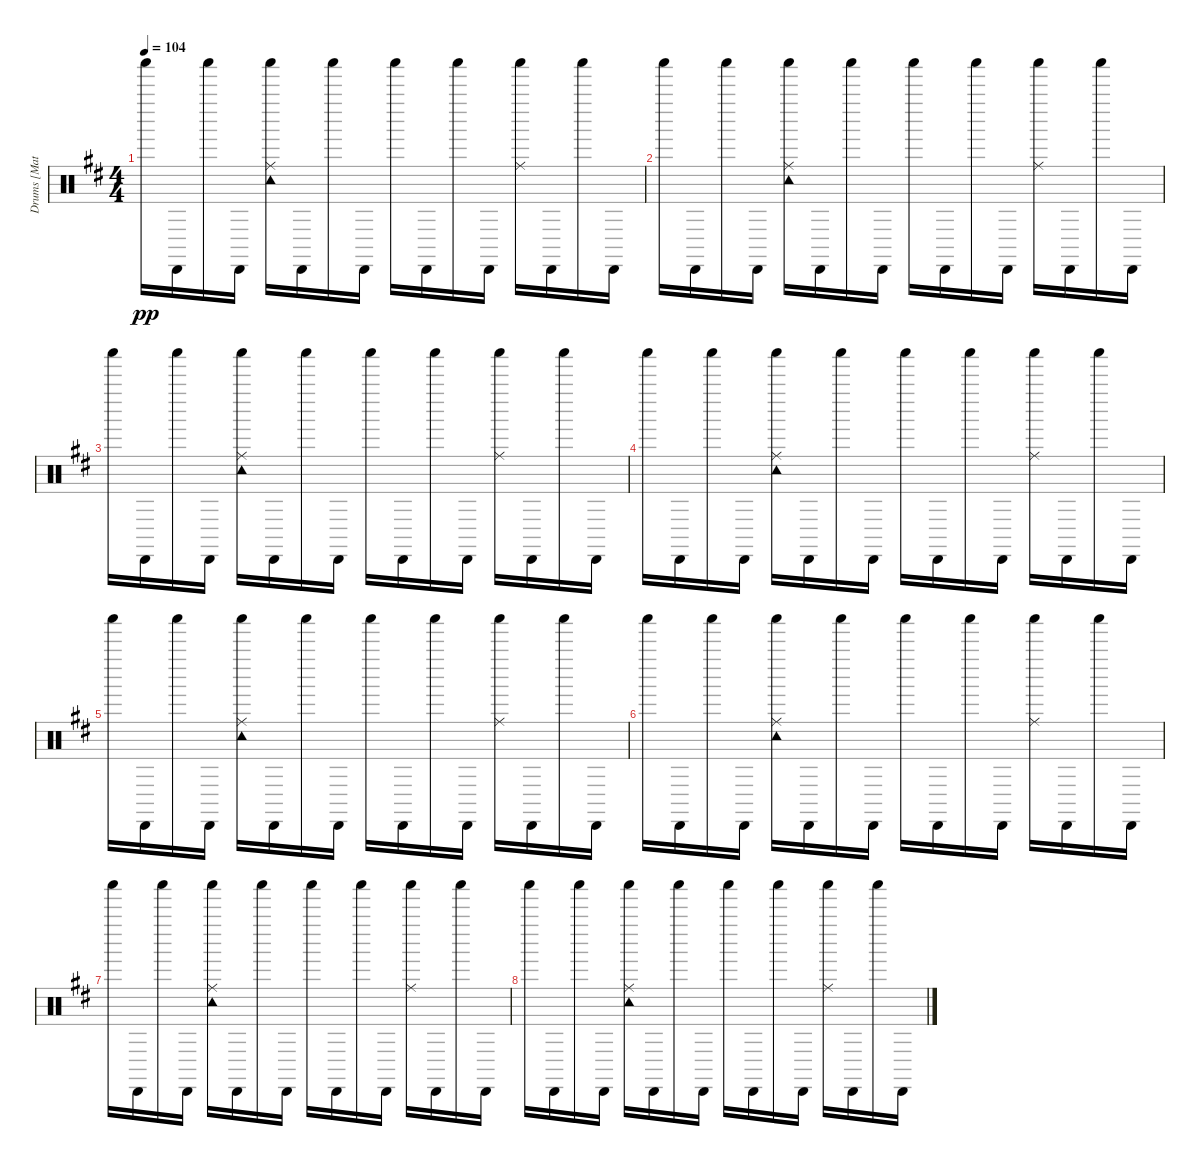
\track ("Drums [Matt]" "Drums [Mat") {instrument percussion}
\staff {score}
\articulation defaults
\ts (4 4)
\tempo 104
\clef neutral
\ks d "Shaker (hit)".16{dy pp} "Cabasa (hit)".16 "Shaker (hit)".16 "Cabasa (hit)".16
("Ride (middle)" "Tambourine (hit)" "Shaker (hit)").16 "Cabasa (hit)".16 "Shaker (hit)".16 "Cabasa (hit)".16 "Shaker (hit)".16 "Cabasa (hit)".16 "Shaker (hit)".16 "Cabasa (hit)".16 ("Ride (middle)" "Shaker (hit)").16 "Cabasa (hit)".16 "Shaker (hit)".16 "Cabasa (hit)".16 |
"Shaker (hit)".16 "Cabasa (hit)".16 "Shaker (hit)".16 "Cabasa (hit)".16 ("Ride (middle)" "Tambourine (hit)" "Shaker (hit)").16 "Cabasa (hit)".16 "Shaker (hit)".16 "Cabasa (hit)".16 "Shaker (hit)".16 "Cabasa (hit)".16 "Shaker (hit)".16 "Cabasa (hit)".16 ("Ride (middle)" "Shaker (hit)").16 "Cabasa (hit)".16 "Shaker (hit)".16 "Cabasa (hit)".16 |
"Shaker (hit)".16 "Cabasa (hit)".16 "Shaker (hit)".16 "Cabasa (hit)".16 ("Ride (middle)" "Tambourine (hit)" "Shaker (hit)").16 "Cabasa (hit)".16 "Shaker (hit)".16 "Cabasa (hit)".16 "Shaker (hit)".16 "Cabasa (hit)".16 "Shaker (hit)".16 "Cabasa (hit)".16 ("Ride (middle)" "Shaker (hit)").16 "Cabasa (hit)".16 "Shaker (hit)".16 "Cabasa (hit)".16 |
"Shaker (hit)".16 "Cabasa (hit)".16 "Shaker (hit)".16 "Cabasa (hit)".16 ("Ride (middle)" "Tambourine (hit)" "Shaker (hit)").16 "Cabasa (hit)".16 "Shaker (hit)".16 "Cabasa (hit)".16 "Shaker (hit)".16 "Cabasa (hit)".16 "Shaker (hit)".16 "Cabasa (hit)".16 ("Ride (middle)" "Shaker (hit)").16 "Cabasa (hit)".16 "Shaker (hit)".16 "Cabasa (hit)".16 |
"Shaker (hit)".16 "Cabasa (hit)".16 "Shaker (hit)".16 "Cabasa (hit)".16 ("Ride (middle)" "Tambourine (hit)" "Shaker (hit)").16 "Cabasa (hit)".16 "Shaker (hit)".16 "Cabasa (hit)".16 "Shaker (hit)".16 "Cabasa (hit)".16 "Shaker (hit)".16 "Cabasa (hit)".16 ("Ride (middle)" "Shaker (hit)").16 "Cabasa (hit)".16 "Shaker (hit)".16 "Cabasa (hit)".16 |
"Shaker (hit)".16 "Cabasa (hit)".16 "Shaker (hit)".16 "Cabasa (hit)".16 ("Ride (middle)" "Tambourine (hit)" "Shaker (hit)").16 "Cabasa (hit)".16 "Shaker (hit)".16 "Cabasa (hit)".16 "Shaker (hit)".16 "Cabasa (hit)".16 "Shaker (hit)".16 "Cabasa (hit)".16 ("Ride (middle)" "Shaker (hit)").16 "Cabasa (hit)".16 "Shaker (hit)".16 "Cabasa (hit)".16 |
"Shaker (hit)".16 "Cabasa (hit)".16 "Shaker (hit)".16 "Cabasa (hit)".16 ("Ride (middle)" "Tambourine (hit)" "Shaker (hit)").16 "Cabasa (hit)".16 "Shaker (hit)".16 "Cabasa (hit)".16 "Shaker (hit)".16 "Cabasa (hit)".16 "Shaker (hit)".16 "Cabasa (hit)".16 ("Ride (middle)" "Shaker (hit)").16 "Cabasa (hit)".16 "Shaker (hit)".16 "Cabasa (hit)".16 |
"Shaker (hit)".16 "Cabasa (hit)".16 "Shaker (hit)".16 "Cabasa (hit)".16 ("Ride (middle)" "Tambourine (hit)" "Shaker (hit)").16 "Cabasa (hit)".16 "Shaker (hit)".16 "Cabasa (hit)".16 "Shaker (hit)".16 "Cabasa (hit)".16 "Shaker (hit)".16 "Cabasa (hit)".16 ("Ride (middle)" "Shaker (hit)").16 "Cabasa (hit)".16 "Shaker (hit)".16 "Cabasa (hit)".16
